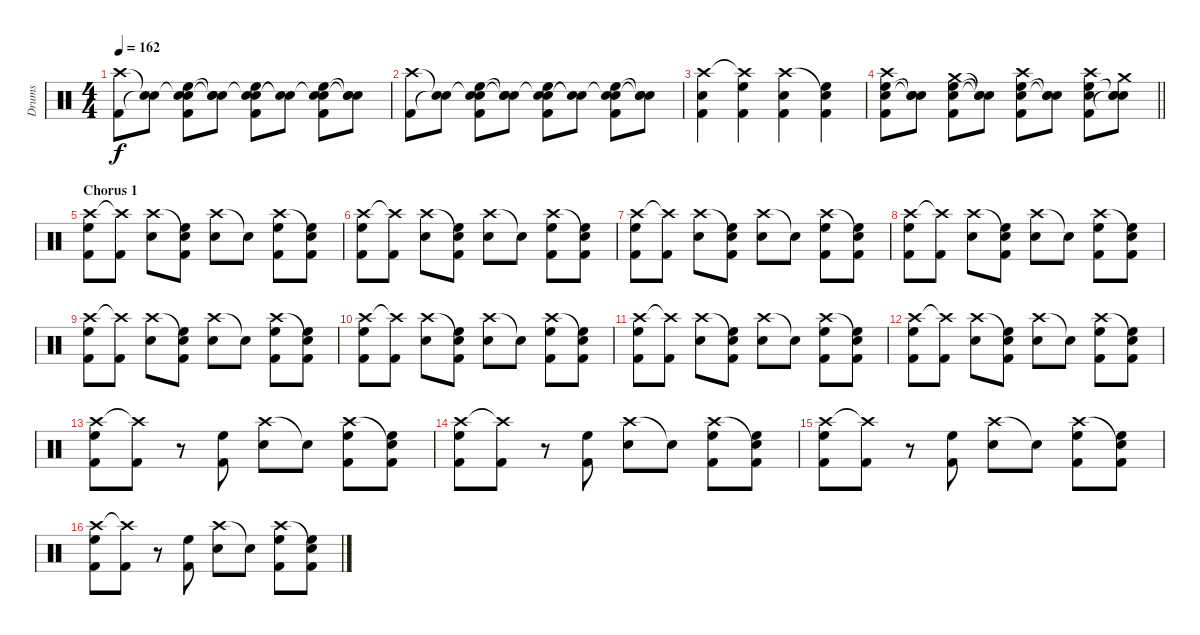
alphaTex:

\track ("Drums" "Drums") {instrument percussion}
\staff {score}
\articulation defaults
\ts (4 4)
\tempo 162
\clef neutral
\ks c
("Crash high (hit)" "Kick (hit) 2").8{dy f} ("Snare (hit)"{t} "Snare (hit)"{t}).8 ("Snare (hit)"{t} "Snare (hit) 2" "High Floor Tom (hit)" "Kick (hit) 2").8 ("Snare (hit)"{t} "Snare (hit) 2" "Snare (hit)"{t}).8 ("Snare (hit)"{t} "Snare (hit) 2" "High Floor Tom (hit)" "Kick (hit) 2").8 ("Snare (hit)"{t} "Snare (hit)"{t}).8 ("Snare (hit)"{t} "Snare (hit) 2" "High Floor Tom (hit)" "Kick (hit) 2").8 ("Snare (hit)"{t} "Snare (hit) 2" "Snare (hit)"{t}).8 |
("Crash high (hit)" "Kick (hit) 2").8 ("Snare (hit)"{t} "Snare (hit)"{t}).8 ("Snare (hit)"{t} "Snare (hit) 2" "High Floor Tom (hit)" "Kick (hit) 2").8 ("Snare (hit)"{t} "Snare (hit) 2" "Snare (hit)"{t}).8 ("Snare (hit)"{t} "Snare (hit) 2" "High Floor Tom (hit)" "Kick (hit) 2").8 ("Snare (hit)"{t} "Snare (hit)"{t}).8 ("Snare (hit)"{t} "Snare (hit) 2" "High Floor Tom (hit)" "Kick (hit) 2").8 ("Snare (hit)"{t} "Snare (hit) 2" "Snare (hit)"{t}).8 |
("Crash high (hit)" "Snare (hit) 2" "Kick (hit) 2").4 ("Crash high (hit)"{t} "High Floor Tom (hit)" "Kick (hit) 2").4 ("Crash high (hit)" "Snare (hit) 2" "Kick (hit) 2").4 ("Snare (hit)"{t} "High Floor Tom (hit)" "Kick (hit) 2").4 |
\barLineRight lightlight
("Crash high (hit)" "Snare (hit) 2" "High Floor Tom (hit)" "Kick (hit) 2").8 ("Snare (hit) 2" "Snare (hit)"{t} "Snare (hit)"{t}).8 ("Crash medium (hit)" "Snare (hit) 2" "High Floor Tom (hit)" "Kick (hit) 2").8 ("Snare (hit)"{t} "Snare (hit)"{t} "Snare (hit)"{t}).8 ("Crash high (hit)" "Snare (hit) 2" "High Floor Tom (hit)" "Kick (hit) 2").8 ("Snare (hit) 2" "Snare (hit)"{t} "Snare (hit)"{t}).8 ("Crash high (hit)" "Snare (hit) 2" "High Floor Tom (hit)" "Kick (hit) 2").8 ("Crash medium (hit)" "Snare (hit) 2" "Snare (hit)"{t} "Snare (hit)"{t}).8 |
\section ("" "Chorus 1")
("Crash high (hit)" "High Floor Tom (hit)" "Kick (hit) 2").8 ("Crash high (hit)"{t} "Kick (hit) 2").8 ("Crash high (hit)" "Snare (hit) 2").8 ("Snare (hit)"{t} "High Floor Tom (hit)" "Kick (hit) 2").8 ("Crash high (hit)" "Snare (hit) 2").8 "Snare (hit)"{t}.8 ("Crash high (hit)" "High Floor Tom (hit)" "Kick (hit) 2").8 ("Snare (hit)"{t} "High Floor Tom (hit)" "Kick (hit) 2").8 |
("Crash high (hit)" "High Floor Tom (hit)" "Kick (hit) 2").8 ("Crash high (hit)"{t} "Kick (hit) 2").8 ("Crash high (hit)" "Snare (hit) 2").8 ("Snare (hit)"{t} "High Floor Tom (hit)" "Kick (hit) 2").8 ("Crash high (hit)" "Snare (hit) 2").8 "Snare (hit)"{t}.8 ("Crash high (hit)" "High Floor Tom (hit)" "Kick (hit) 2").8 ("Snare (hit)"{t} "High Floor Tom (hit)" "Kick (hit) 2").8 |
("Crash high (hit)" "High Floor Tom (hit)" "Kick (hit) 2").8 ("Crash high (hit)"{t} "Kick (hit) 2").8 ("Crash high (hit)" "Snare (hit) 2").8 ("Snare (hit)"{t} "High Floor Tom (hit)" "Kick (hit) 2").8 ("Crash high (hit)" "Snare (hit) 2").8 "Snare (hit)"{t}.8 ("Crash high (hit)" "High Floor Tom (hit)" "Kick (hit) 2").8 ("Snare (hit)"{t} "High Floor Tom (hit)" "Kick (hit) 2").8 |
("Crash high (hit)" "High Floor Tom (hit)" "Kick (hit) 2").8 ("Crash high (hit)"{t} "Kick (hit) 2").8 ("Crash high (hit)" "Snare (hit) 2").8 ("Snare (hit)"{t} "High Floor Tom (hit)" "Kick (hit) 2").8 ("Crash high (hit)" "Snare (hit) 2").8 "Snare (hit)"{t}.8 ("Crash high (hit)" "High Floor Tom (hit)" "Kick (hit) 2").8 ("Snare (hit)"{t} "High Floor Tom (hit)" "Kick (hit) 2").8 |
("Crash high (hit)" "High Floor Tom (hit)" "Kick (hit) 2").8 ("Crash high (hit)"{t} "Kick (hit) 2").8 ("Crash high (hit)" "Snare (hit) 2").8 ("Snare (hit)"{t} "High Floor Tom (hit)" "Kick (hit) 2").8 ("Crash high (hit)" "Snare (hit) 2").8 "Snare (hit)"{t}.8 ("Crash high (hit)" "High Floor Tom (hit)" "Kick (hit) 2").8 ("Snare (hit)"{t} "High Floor Tom (hit)" "Kick (hit) 2").8 |
("Crash high (hit)" "High Floor Tom (hit)" "Kick (hit) 2").8 ("Crash high (hit)"{t} "Kick (hit) 2").8 ("Crash high (hit)" "Snare (hit) 2").8 ("Snare (hit)"{t} "High Floor Tom (hit)" "Kick (hit) 2").8 ("Crash high (hit)" "Snare (hit) 2").8 "Snare (hit)"{t}.8 ("Crash high (hit)" "High Floor Tom (hit)" "Kick (hit) 2").8 ("Snare (hit)"{t} "High Floor Tom (hit)" "Kick (hit) 2").8 |
("Crash high (hit)" "High Floor Tom (hit)" "Kick (hit) 2").8 ("Crash high (hit)"{t} "Kick (hit) 2").8 ("Crash high (hit)" "Snare (hit) 2").8 ("Snare (hit)"{t} "High Floor Tom (hit)" "Kick (hit) 2").8 ("Crash high (hit)" "Snare (hit) 2").8 "Snare (hit)"{t}.8 ("Crash high (hit)" "High Floor Tom (hit)" "Kick (hit) 2").8 ("Snare (hit)"{t} "High Floor Tom (hit)" "Kick (hit) 2").8 |
("Crash high (hit)" "High Floor Tom (hit)" "Kick (hit) 2").8 ("Crash high (hit)"{t} "Kick (hit) 2").8 ("Crash high (hit)" "Snare (hit) 2").8 ("Snare (hit)"{t} "High Floor Tom (hit)" "Kick (hit) 2").8 ("Crash high (hit)" "Snare (hit) 2").8 "Snare (hit)"{t}.8 ("Crash high (hit)" "High Floor Tom (hit)" "Kick (hit) 2").8 ("Snare (hit)"{t} "High Floor Tom (hit)" "Kick (hit) 2").8 |
("Crash high (hit)" "High Floor Tom (hit)" "Kick (hit) 2").8 ("Crash high (hit)"{t} "Kick (hit) 2").8 r.8 ("High Floor Tom (hit)" "Kick (hit) 2").8 ("Crash high (hit)" "Snare (hit) 2").8 "Snare (hit)"{t}.8 ("Crash high (hit)" "High Floor Tom (hit)" "Kick (hit) 2").8 ("Snare (hit)"{t} "High Floor Tom (hit)" "Kick (hit) 2").8 |
("Crash high (hit)" "High Floor Tom (hit)" "Kick (hit) 2").8 ("Crash high (hit)"{t} "Kick (hit) 2").8 r.8 ("High Floor Tom (hit)" "Kick (hit) 2").8 ("Crash high (hit)" "Snare (hit) 2").8 "Snare (hit)"{t}.8 ("Crash high (hit)" "High Floor Tom (hit)" "Kick (hit) 2").8 ("Snare (hit)"{t} "High Floor Tom (hit)" "Kick (hit) 2").8 |
("Crash high (hit)" "High Floor Tom (hit)" "Kick (hit) 2").8 ("Crash high (hit)"{t} "Kick (hit) 2").8 r.8 ("High Floor Tom (hit)" "Kick (hit) 2").8 ("Crash high (hit)" "Snare (hit) 2").8 "Snare (hit)"{t}.8 ("Crash high (hit)" "High Floor Tom (hit)" "Kick (hit) 2").8 ("Snare (hit)"{t} "High Floor Tom (hit)" "Kick (hit) 2").8 |
("Crash high (hit)" "High Floor Tom (hit)" "Kick (hit) 2").8 ("Crash high (hit)"{t} "Kick (hit) 2").8 r.8 ("High Floor Tom (hit)" "Kick (hit) 2").8 ("Crash high (hit)" "Snare (hit) 2").8 "Snare (hit)"{t}.8 ("Crash high (hit)" "High Floor Tom (hit)" "Kick (hit) 2").8 ("Snare (hit)"{t} "High Floor Tom (hit)" "Kick (hit) 2").8
